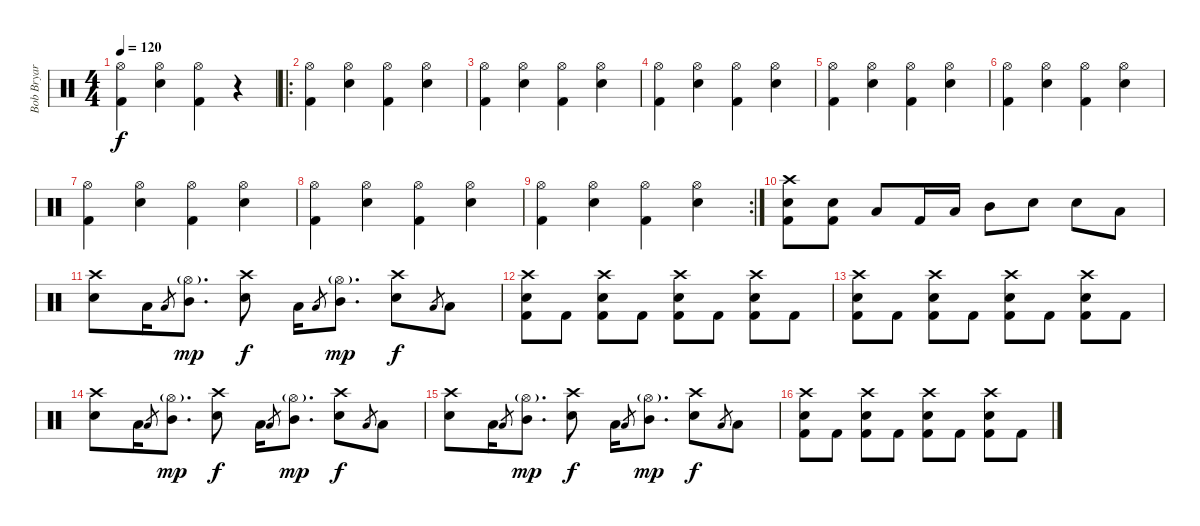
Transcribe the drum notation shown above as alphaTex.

\track ("Bob Bryar [Drums]" "Bob Bryar ") {instrument percussion}
\staff {score}
\articulation defaults
\ts (4 4)
\tempo 120
\clef neutral
\ks c
("Hi-Hat (open)" "Kick (hit) 2").4{dy f} ("Hi-Hat (open)" "Electric Snare (hit)").4 ("Hi-Hat (open)" "Kick (hit) 2").4 r.4 |
\ro
("Hi-Hat (open)" "Kick (hit) 2").4 ("Hi-Hat (open)" "Electric Snare (hit)").4 ("Hi-Hat (open)" "Kick (hit) 2").4 ("Hi-Hat (open)" "Electric Snare (hit)").4 |
("Hi-Hat (open)" "Kick (hit) 2").4 ("Hi-Hat (open)" "Electric Snare (hit)").4 ("Hi-Hat (open)" "Kick (hit) 2").4 ("Hi-Hat (open)" "Electric Snare (hit)").4 |
("Hi-Hat (open)" "Kick (hit) 2").4 ("Hi-Hat (open)" "Electric Snare (hit)").4 ("Hi-Hat (open)" "Kick (hit) 2").4 ("Hi-Hat (open)" "Electric Snare (hit)").4 |
("Hi-Hat (open)" "Kick (hit) 2").4 ("Hi-Hat (open)" "Electric Snare (hit)").4 ("Hi-Hat (open)" "Kick (hit) 2").4 ("Hi-Hat (open)" "Electric Snare (hit)").4 |
("Hi-Hat (open)" "Kick (hit) 2").4 ("Hi-Hat (open)" "Electric Snare (hit)").4 ("Hi-Hat (open)" "Kick (hit) 2").4 ("Hi-Hat (open)" "Electric Snare (hit)").4 |
("Hi-Hat (open)" "Kick (hit) 2").4 ("Hi-Hat (open)" "Electric Snare (hit)").4 ("Hi-Hat (open)" "Kick (hit) 2").4 ("Hi-Hat (open)" "Electric Snare (hit)").4 |
("Hi-Hat (open)" "Kick (hit) 2").4 ("Hi-Hat (open)" "Electric Snare (hit)").4 ("Hi-Hat (open)" "Kick (hit) 2").4 ("Hi-Hat (open)" "Electric Snare (hit)").4 |
\rc 2
("Hi-Hat (open)" "Kick (hit) 2").4 ("Hi-Hat (open)" "Electric Snare (hit)").4 ("Hi-Hat (open)" "Kick (hit) 2").4 ("Hi-Hat (open)" "Electric Snare (hit)").4 |
("Crash high (hit)" "Electric Snare (hit)" "Kick (hit) 2").8 ("Electric Snare (hit)" "Kick (hit) 2").8 "Low Tom (hit)".8 "Kick (hit) 2".16 "Low Tom (hit)".16 "Mid Tom (hit)".8 "Electric Snare (hit)".8 "Electric Snare (hit)".8 "Low Tom (hit)".8 |
("Crash high (hit)" "Electric Snare (hit)").8 "Low Tom (hit)".16 "Low Floor Tom (hit)".8{gr} ("Hi-Hat (open)"{g} "Mid Tom (hit)").8{d dy mp} ("Crash high (hit)" "Electric Snare (hit)").8{dy f} "Low Tom (hit)".16 "Low Floor Tom (hit)".8{gr} ("Hi-Hat (open)"{g} "Mid Tom (hit)").8{d dy mp} ("Crash high (hit)" "Electric Snare (hit)").8{dy f} "Low Floor Tom (hit)".8{gr} "Low Tom (hit)".8 |
("Crash high (hit)" "Electric Snare (hit)" "Kick (hit) 2").8 "Kick (hit) 2".8 ("Crash high (hit)" "Electric Snare (hit)" "Kick (hit) 2").8 "Kick (hit) 2".8 ("Crash high (hit)" "Electric Snare (hit)" "Kick (hit) 2").8 "Kick (hit) 2".8 ("Crash high (hit)" "Electric Snare (hit)" "Kick (hit) 2").8 "Kick (hit) 2".8 |
("Crash high (hit)" "Electric Snare (hit)" "Kick (hit) 2").8 "Kick (hit) 2".8 ("Crash high (hit)" "Electric Snare (hit)" "Kick (hit) 2").8 "Kick (hit) 2".8 ("Crash high (hit)" "Electric Snare (hit)" "Kick (hit) 2").8 "Kick (hit) 2".8 ("Crash high (hit)" "Electric Snare (hit)" "Kick (hit) 2").8 "Kick (hit) 2".8 |
("Crash high (hit)" "Electric Snare (hit)").8 "Low Tom (hit)".16 "Low Floor Tom (hit)".8{gr} ("Hi-Hat (open)"{g} "Mid Tom (hit)").8{d dy mp} ("Crash high (hit)" "Electric Snare (hit)").8{dy f} "Low Tom (hit)".16 "Low Floor Tom (hit)".8{gr} ("Hi-Hat (open)"{g} "Mid Tom (hit)").8{d dy mp} ("Crash high (hit)" "Electric Snare (hit)").8{dy f} "Low Floor Tom (hit)".8{gr} "Low Tom (hit)".8 |
("Crash high (hit)" "Electric Snare (hit)").8 "Low Tom (hit)".16 "Low Floor Tom (hit)".8{gr} ("Hi-Hat (open)"{g} "Mid Tom (hit)").8{d dy mp} ("Crash high (hit)" "Electric Snare (hit)").8{dy f} "Low Tom (hit)".16 "Low Floor Tom (hit)".8{gr} ("Hi-Hat (open)"{g} "Mid Tom (hit)").8{d dy mp} ("Crash high (hit)" "Electric Snare (hit)").8{dy f} "Low Floor Tom (hit)".8{gr} "Low Tom (hit)".8 |
("Crash high (hit)" "Electric Snare (hit)" "Kick (hit) 2").8 "Kick (hit) 2".8 ("Crash high (hit)" "Electric Snare (hit)" "Kick (hit) 2").8 "Kick (hit) 2".8 ("Crash high (hit)" "Electric Snare (hit)" "Kick (hit) 2").8 "Kick (hit) 2".8 ("Crash high (hit)" "Electric Snare (hit)" "Kick (hit) 2").8 "Kick (hit) 2".8
